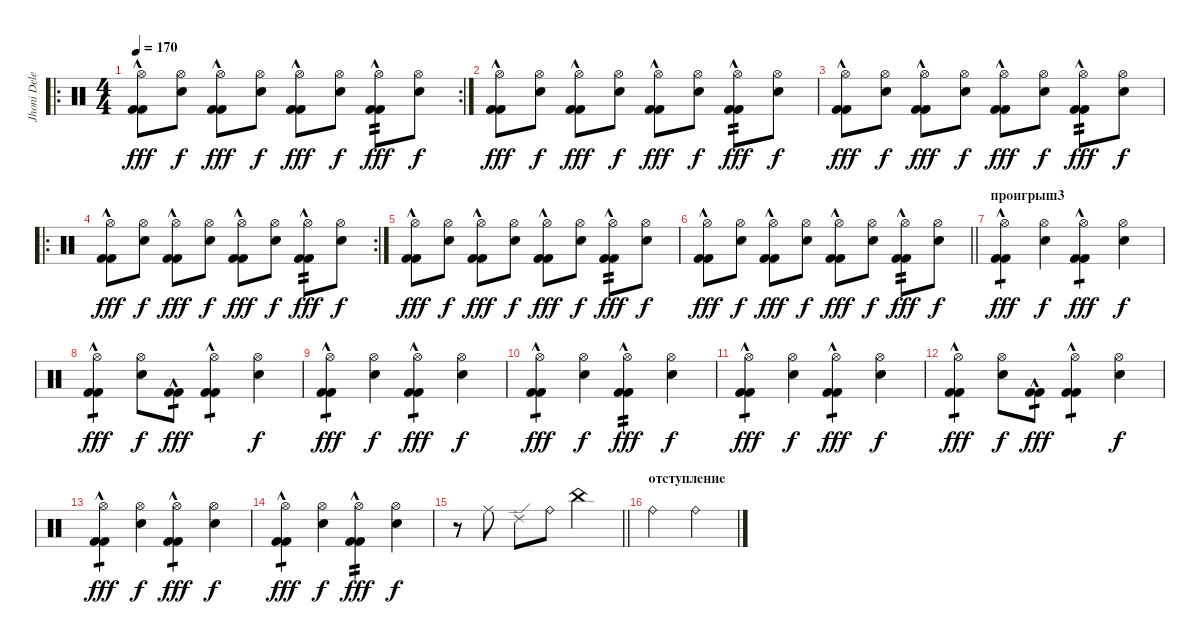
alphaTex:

\track ("Jhoni Delenger" "Jhoni Dele") {instrument percussion}
\staff {score}
\articulation defaults
\ro
\rc 2
\ts (4 4)
\tempo 170
\clef neutral
\ks c
("Hi-Hat (open)" "Kick (hit) 2"{hac} "Kick (hit) 2").8{dy fff} ("Hi-Hat (open)" "Snare (hit) 2").8{dy f} ("Hi-Hat (open)" "Kick (hit) 2"{hac} "Kick (hit) 2").8{dy fff} ("Hi-Hat (open)" "Snare (hit) 2").8{dy f} ("Hi-Hat (open)" "Kick (hit) 2"{hac} "Kick (hit) 2").8{dy fff} ("Hi-Hat (open)" "Snare (hit) 2").8{dy f} ("Hi-Hat (open)" "Kick (hit) 2"{hac} "Kick (hit) 2").8{tp 2 dy fff} ("Hi-Hat (open)" "Snare (hit) 2").8{dy f} |
("Hi-Hat (open)" "Kick (hit) 2"{hac} "Kick (hit) 2").8{dy fff} ("Hi-Hat (open)" "Snare (hit) 2").8{dy f} ("Hi-Hat (open)" "Kick (hit) 2"{hac} "Kick (hit) 2").8{dy fff} ("Hi-Hat (open)" "Snare (hit) 2").8{dy f} ("Hi-Hat (open)" "Kick (hit) 2"{hac} "Kick (hit) 2").8{dy fff} ("Hi-Hat (open)" "Snare (hit) 2").8{dy f} ("Hi-Hat (open)" "Kick (hit) 2"{hac} "Kick (hit) 2").8{tp 2 dy fff} ("Hi-Hat (open)" "Snare (hit) 2").8{dy f} |
("Hi-Hat (open)" "Kick (hit) 2"{hac} "Kick (hit) 2").8{dy fff} ("Hi-Hat (open)" "Snare (hit) 2").8{dy f} ("Hi-Hat (open)" "Kick (hit) 2"{hac} "Kick (hit) 2").8{dy fff} ("Hi-Hat (open)" "Snare (hit) 2").8{dy f} ("Hi-Hat (open)" "Kick (hit) 2"{hac} "Kick (hit) 2").8{dy fff} ("Hi-Hat (open)" "Snare (hit) 2").8{dy f} ("Hi-Hat (open)" "Kick (hit) 2"{hac} "Kick (hit) 2").8{tp 2 dy fff} ("Hi-Hat (open)" "Snare (hit) 2").8{dy f} |
\ro
\rc 2
("Hi-Hat (open)" "Kick (hit) 2"{hac} "Kick (hit) 2").8{dy fff} ("Hi-Hat (open)" "Snare (hit) 2").8{dy f} ("Hi-Hat (open)" "Kick (hit) 2"{hac} "Kick (hit) 2").8{dy fff} ("Hi-Hat (open)" "Snare (hit) 2").8{dy f} ("Hi-Hat (open)" "Kick (hit) 2"{hac} "Kick (hit) 2").8{dy fff} ("Hi-Hat (open)" "Snare (hit) 2").8{dy f} ("Hi-Hat (open)" "Kick (hit) 2"{hac} "Kick (hit) 2").8{tp 2 dy fff} ("Hi-Hat (open)" "Snare (hit) 2").8{dy f} |
("Hi-Hat (open)" "Kick (hit) 2"{hac} "Kick (hit) 2").8{dy fff} ("Hi-Hat (open)" "Snare (hit) 2").8{dy f} ("Hi-Hat (open)" "Kick (hit) 2"{hac} "Kick (hit) 2").8{dy fff} ("Hi-Hat (open)" "Snare (hit) 2").8{dy f} ("Hi-Hat (open)" "Kick (hit) 2"{hac} "Kick (hit) 2").8{dy fff} ("Hi-Hat (open)" "Snare (hit) 2").8{dy f} ("Hi-Hat (open)" "Kick (hit) 2"{hac} "Kick (hit) 2").8{tp 2 dy fff} ("Hi-Hat (open)" "Snare (hit) 2").8{dy f} |
\barLineRight lightlight
("Hi-Hat (open)" "Kick (hit) 2"{hac} "Kick (hit) 2").8{dy fff} ("Hi-Hat (open)" "Snare (hit) 2").8{dy f} ("Hi-Hat (open)" "Kick (hit) 2"{hac} "Kick (hit) 2").8{dy fff} ("Hi-Hat (open)" "Snare (hit) 2").8{dy f} ("Hi-Hat (open)" "Kick (hit) 2"{hac} "Kick (hit) 2").8{dy fff} ("Hi-Hat (open)" "Snare (hit) 2").8{dy f} ("Hi-Hat (open)" "Kick (hit) 2"{hac} "Kick (hit) 2").8{tp 2 dy fff} ("Hi-Hat (open)" "Snare (hit) 2").8{dy f} |
\section ("" "проигрыш3")
("Hi-Hat (open)" "Kick (hit) 2"{hac} "Kick (hit) 2").4{tp 1 dy fff} ("Hi-Hat (open)" "Snare (hit) 2").4{dy f} ("Hi-Hat (open)" "Kick (hit) 2"{hac} "Kick (hit) 2").4{tp 1 dy fff} ("Hi-Hat (open)" "Snare (hit) 2").4{dy f} |
("Hi-Hat (open)" "Kick (hit) 2"{hac} "Kick (hit) 2").4{tp 1 dy fff} ("Hi-Hat (open)" "Snare (hit) 2").8{dy f} ("Kick (hit) 2"{hac} "Kick (hit) 2").8{tp 1 dy fff} ("Hi-Hat (open)" "Kick (hit) 2"{hac} "Kick (hit) 2").4{tp 1} ("Hi-Hat (open)" "Snare (hit) 2").4{dy f} |
("Hi-Hat (open)" "Kick (hit) 2"{hac} "Kick (hit) 2").4{tp 1 dy fff} ("Hi-Hat (open)" "Snare (hit) 2").4{dy f} ("Hi-Hat (open)" "Kick (hit) 2"{hac} "Kick (hit) 2").4{tp 1 dy fff} ("Hi-Hat (open)" "Snare (hit) 2").4{dy f} |
("Hi-Hat (open)" "Kick (hit) 2"{hac} "Kick (hit) 2").4{tp 1 dy fff} ("Hi-Hat (open)" "Snare (hit) 2").4{dy f} ("Hi-Hat (open)" "Kick (hit) 2"{hac} "Kick (hit) 2").4{tp 2 dy fff} ("Hi-Hat (open)" "Snare (hit) 2").4{dy f} |
("Hi-Hat (open)" "Kick (hit) 2"{hac} "Kick (hit) 2").4{tp 1 dy fff} ("Hi-Hat (open)" "Snare (hit) 2").4{dy f} ("Hi-Hat (open)" "Kick (hit) 2"{hac} "Kick (hit) 2").4{tp 1 dy fff} ("Hi-Hat (open)" "Snare (hit) 2").4{dy f} |
("Hi-Hat (open)" "Kick (hit) 2"{hac} "Kick (hit) 2").4{tp 1 dy fff} ("Hi-Hat (open)" "Snare (hit) 2").8{dy f} ("Kick (hit) 2"{hac} "Kick (hit) 2").8{tp 1 dy fff} ("Hi-Hat (open)" "Kick (hit) 2"{hac} "Kick (hit) 2").4{tp 1} ("Hi-Hat (open)" "Snare (hit) 2").4{dy f} |
("Hi-Hat (open)" "Kick (hit) 2"{hac} "Kick (hit) 2").4{tp 1 dy fff} ("Hi-Hat (open)" "Snare (hit) 2").4{dy f} ("Hi-Hat (open)" "Kick (hit) 2"{hac} "Kick (hit) 2").4{tp 1 dy fff} ("Hi-Hat (open)" "Snare (hit) 2").4{dy f} |
("Hi-Hat (open)" "Kick (hit) 2"{hac} "Kick (hit) 2").4{tp 1 dy fff} ("Hi-Hat (open)" "Snare (hit) 2").4{dy f} ("Hi-Hat (open)" "Kick (hit) 2"{hac} "Kick (hit) 2").4{tp 2 dy fff} ("Hi-Hat (open)" "Snare (hit) 2").4{dy f} |
\barLineRight lightlight
r.8 "Ride (middle)".8 "Ride (edge) 2".8 "Ride (bell)".8 "China (hit)".2 |
\section ("" "отступление")
"Ride (bell)".2 "Ride (bell)".2
